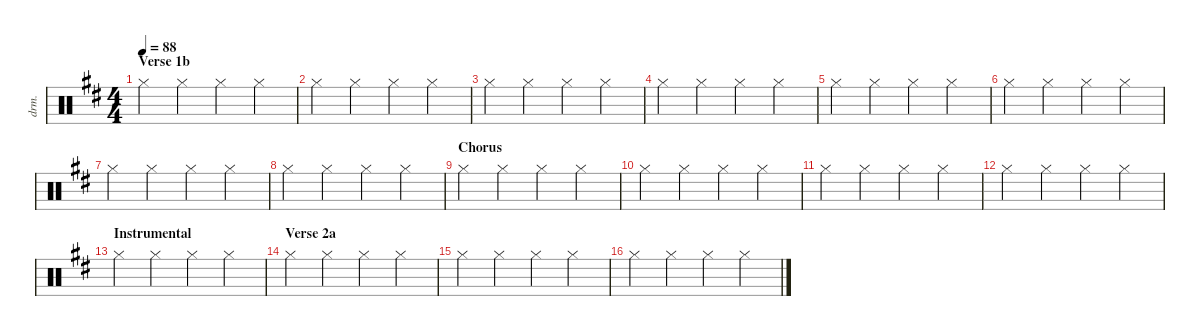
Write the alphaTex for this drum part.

\defaultSystemsLayout 4
\hideDynamics
\bracketExtendMode nobrackets
\otherSystemsTrackNameOrientation horizontal
\track ("Drumkit" "drm.") {instrument percussion}
\staff {score}
\articulation defaults
\ts (4 4)
\section ("" "Verse 1b")
\tempo 88
\clef neutral
\ks d "Hi-Hat (closed)"{acc forcenatural}.4{dy mf beam Down} "Hi-Hat (closed)"{acc forcenatural}.4{beam Down} "Hi-Hat (closed)"{acc forcenatural}.4{beam Down} "Hi-Hat (closed)"{acc forcenatural}.4{beam Down}
|
"Hi-Hat (closed)"{acc forcenatural}.4{beam Down} "Hi-Hat (closed)"{acc forcenatural}.4{beam Down} "Hi-Hat (closed)"{acc forcenatural}.4{beam Down} "Hi-Hat (closed)"{acc forcenatural}.4{beam Down} |
"Hi-Hat (closed)"{acc forcenatural}.4{beam Down} "Hi-Hat (closed)"{acc forcenatural}.4{beam Down} "Hi-Hat (closed)"{acc forcenatural}.4{beam Down} "Hi-Hat (closed)"{acc forcenatural}.4{beam Down} |
"Hi-Hat (closed)"{acc forcenatural}.4{beam Down} "Hi-Hat (closed)"{acc forcenatural}.4{beam Down} "Hi-Hat (closed)"{acc forcenatural}.4{beam Down} "Hi-Hat (closed)"{acc forcenatural}.4{beam Down} |
"Hi-Hat (closed)"{acc forcenatural}.4{beam Down} "Hi-Hat (closed)"{acc forcenatural}.4{beam Down} "Hi-Hat (closed)"{acc forcenatural}.4{beam Down} "Hi-Hat (closed)"{acc forcenatural}.4{beam Down} |
"Hi-Hat (closed)"{acc forcenatural}.4{beam Down} "Hi-Hat (closed)"{acc forcenatural}.4{beam Down} "Hi-Hat (closed)"{acc forcenatural}.4{beam Down} "Hi-Hat (closed)"{acc forcenatural}.4{beam Down} |
"Hi-Hat (closed)"{acc forcenatural}.4{beam Down} "Hi-Hat (closed)"{acc forcenatural}.4{beam Down} "Hi-Hat (closed)"{acc forcenatural}.4{beam Down} "Hi-Hat (closed)"{acc forcenatural}.4{beam Down} |
"Hi-Hat (closed)"{acc forcenatural}.4{beam Down} "Hi-Hat (closed)"{acc forcenatural}.4{beam Down} "Hi-Hat (closed)"{acc forcenatural}.4{beam Down} "Hi-Hat (closed)"{acc forcenatural}.4{beam Down} |
\section ("" "Chorus")
"Hi-Hat (closed)"{acc forcenatural}.4{beam Down} "Hi-Hat (closed)"{acc forcenatural}.4{beam Down} "Hi-Hat (closed)"{acc forcenatural}.4{beam Down} "Hi-Hat (closed)"{acc forcenatural}.4{beam Down} |
"Hi-Hat (closed)"{acc forcenatural}.4{beam Down} "Hi-Hat (closed)"{acc forcenatural}.4{beam Down} "Hi-Hat (closed)"{acc forcenatural}.4{beam Down} "Hi-Hat (closed)"{acc forcenatural}.4{beam Down} |
"Hi-Hat (closed)"{acc forcenatural}.4{beam Down} "Hi-Hat (closed)"{acc forcenatural}.4{beam Down} "Hi-Hat (closed)"{acc forcenatural}.4{beam Down} "Hi-Hat (closed)"{acc forcenatural}.4{beam Down} |
"Hi-Hat (closed)"{acc forcenatural}.4{beam Down} "Hi-Hat (closed)"{acc forcenatural}.4{beam Down} "Hi-Hat (closed)"{acc forcenatural}.4{beam Down} "Hi-Hat (closed)"{acc forcenatural}.4{beam Down} |
\section ("" "Instrumental")
"Hi-Hat (closed)"{acc forcenatural}.4{beam Down} "Hi-Hat (closed)"{acc forcenatural}.4{beam Down} "Hi-Hat (closed)"{acc forcenatural}.4{beam Down} "Hi-Hat (closed)"{acc forcenatural}.4{beam Down} |
\section ("" "Verse 2a")
"Hi-Hat (closed)"{acc forcenatural}.4{beam Down} "Hi-Hat (closed)"{acc forcenatural}.4{beam Down} "Hi-Hat (closed)"{acc forcenatural}.4{beam Down} "Hi-Hat (closed)"{acc forcenatural}.4{beam Down} |
"Hi-Hat (closed)"{acc forcenatural}.4{beam Down} "Hi-Hat (closed)"{acc forcenatural}.4{beam Down} "Hi-Hat (closed)"{acc forcenatural}.4{beam Down} "Hi-Hat (closed)"{acc forcenatural}.4{beam Down} |
"Hi-Hat (closed)"{acc forcenatural}.4{beam Down} "Hi-Hat (closed)"{acc forcenatural}.4{beam Down} "Hi-Hat (closed)"{acc forcenatural}.4{beam Down} "Hi-Hat (closed)"{acc forcenatural}.4{beam Down}
